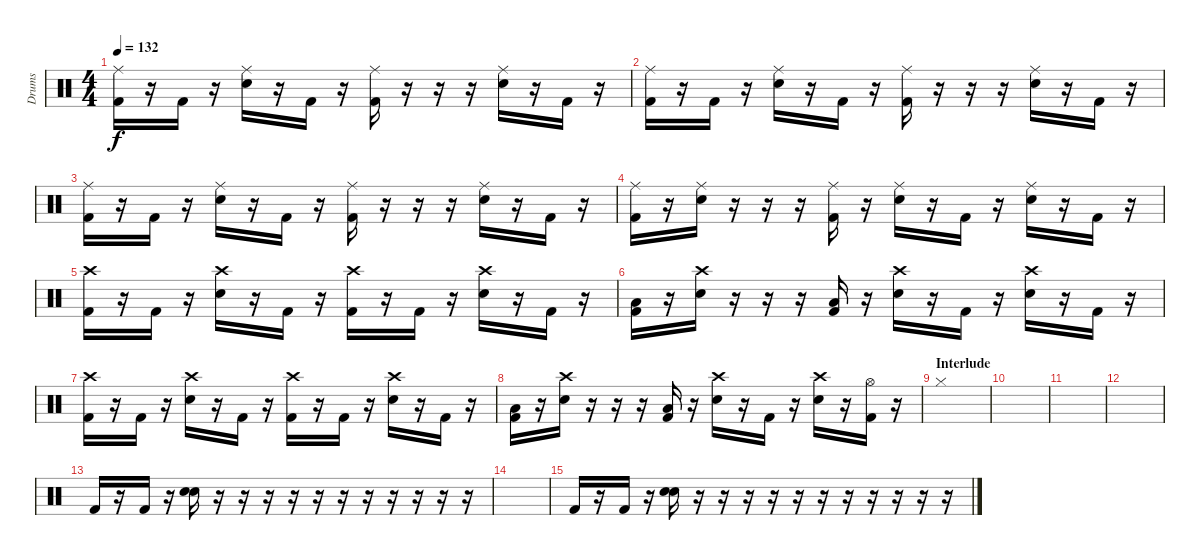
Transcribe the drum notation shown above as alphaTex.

\track ("Drums" "Drums") {instrument percussion}
\staff {score}
\articulation defaults
\ts (4 4)
\tempo 132
\clef neutral
\ks c
("Ride (middle)" "Kick (hit) 2").16{dy f} r.16 "Kick (hit) 2".16 r.16 ("Ride (middle)" "Snare (hit) 2").16 r.16 "Kick (hit) 2".16 r.16 ("Ride (middle)" "Kick (hit) 2").16 r.16 r.16 r.16 ("Ride (middle)" "Snare (hit) 2").16 r.16 "Kick (hit) 2".16 r.16 |
("Ride (middle)" "Kick (hit) 2").16 r.16 "Kick (hit) 2".16 r.16 ("Ride (middle)" "Snare (hit) 2").16 r.16 "Kick (hit) 2".16 r.16 ("Ride (middle)" "Kick (hit) 2").16 r.16 r.16 r.16 ("Ride (middle)" "Snare (hit) 2").16 r.16 "Kick (hit) 2".16 r.16 |
("Ride (middle)" "Kick (hit) 2").16 r.16 "Kick (hit) 2".16 r.16 ("Ride (middle)" "Snare (hit) 2").16 r.16 "Kick (hit) 2".16 r.16 ("Ride (middle)" "Kick (hit) 2").16 r.16 r.16 r.16 ("Ride (middle)" "Snare (hit) 2").16 r.16 "Kick (hit) 2".16 r.16 |
("Ride (middle)" "Kick (hit) 2").16 r.16 ("Ride (middle)" "Snare (hit) 2").16 r.16 r.16 r.16 ("Ride (middle)" "Kick (hit) 2").16 r.16 ("Ride (middle)" "Snare (hit) 2").16 r.16 "Kick (hit) 2".16 r.16 ("Ride (middle)" "Snare (hit) 2").16 r.16 "Kick (hit) 2".16 r.16 |
("Crash high (hit)" "Kick (hit) 2").16 r.16 "Kick (hit) 2".16 r.16 ("Crash high (hit)" "Snare (hit) 2").16 r.16 "Kick (hit) 2".16 r.16 ("Crash high (hit)" "Kick (hit) 2").16 r.16 "Kick (hit) 2".16 r.16 ("Crash high (hit)" "Snare (hit) 2").16 r.16 "Kick (hit) 2".16 r.16 |
("Low Tom (hit)" "Kick (hit) 2").16 r.16 ("Crash high (hit)" "Snare (hit) 2").16 r.16 r.16 r.16 ("Low Tom (hit)" "Kick (hit) 2").16 r.16 ("Crash high (hit)" "Snare (hit) 2").16 r.16 "Kick (hit) 2".16 r.16 ("Crash high (hit)" "Snare (hit) 2").16 r.16 "Kick (hit) 2".16 r.16 |
("Crash high (hit)" "Kick (hit) 2").16 r.16 "Kick (hit) 2".16 r.16 ("Crash high (hit)" "Snare (hit) 2").16 r.16 "Kick (hit) 2".16 r.16 ("Crash high (hit)" "Kick (hit) 2").16 r.16 "Kick (hit) 2".16 r.16 ("Crash high (hit)" "Snare (hit) 2").16 r.16 "Kick (hit) 2".16 r.16 |
("Low Tom (hit)" "Kick (hit) 2").16 r.16 ("Crash high (hit)" "Snare (hit) 2").16 r.16 r.16 r.16 ("Low Tom (hit)" "Kick (hit) 2").16 r.16 ("Crash high (hit)" "Snare (hit) 2").16 r.16 "Kick (hit) 2".16 r.16 ("Crash high (hit)" "Snare (hit) 2").16 r.16 ("Hi-Hat (open)" "Kick (hit) 2").16 r.16 |
\section ("" "Interlude")
"Hi-Hat (closed)".1 |
|
|
|
"Kick (hit) 2".16 r.16 "Kick (hit) 2".16 r.16 ("Snare (hit) 2" "Snare (hit) 2").16 r.16 r.16 r.16 r.16 r.16 r.16 r.16 r.16 r.16 r.16 r.16 |
|
"Kick (hit) 2".16 r.16 "Kick (hit) 2".16 r.16 ("Snare (hit) 2" "Snare (hit) 2").16 r.16 r.16 r.16 r.16 r.16 r.16 r.16 r.16 r.16 r.16 r.16
